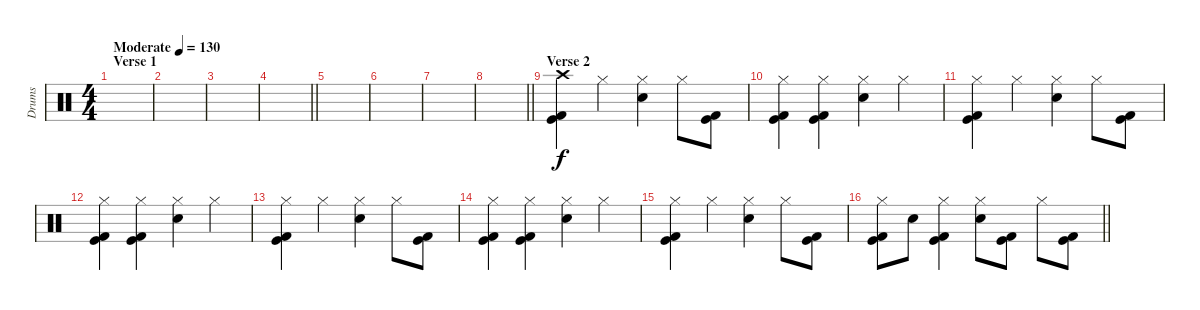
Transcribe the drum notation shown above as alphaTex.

\track ("Drums" "Drums") {instrument percussion}
\staff {score}
\articulation defaults
\ts (4 4)
\section ("" "Verse 1")
\tempo (130 "Moderate")
\clef neutral
\ks c
|
|
|
\barLineRight lightlight
|
|
|
|
\barLineRight lightlight
|
\section ("" "Verse 2")
("Crash high (hit)" "Kick (hit)" "Kick (hit) 2").4 "Hi-Hat (closed)".4 ("Hi-Hat (closed)" "Electric Snare (hit)").4 "Hi-Hat (closed)".8 ("Kick (hit)" "Kick (hit) 2").8 |
("Hi-Hat (closed)" "Kick (hit)" "Kick (hit) 2").4 ("Hi-Hat (closed)" "Kick (hit)" "Kick (hit) 2").4 ("Hi-Hat (closed)" "Electric Snare (hit)").4 "Hi-Hat (closed)".4 |
("Hi-Hat (closed)" "Kick (hit)" "Kick (hit) 2").4 "Hi-Hat (closed)".4 ("Hi-Hat (closed)" "Electric Snare (hit)").4 "Hi-Hat (closed)".8 ("Kick (hit)" "Kick (hit) 2").8 |
("Hi-Hat (closed)" "Kick (hit)" "Kick (hit) 2").4 ("Hi-Hat (closed)" "Kick (hit)" "Kick (hit) 2").4 ("Hi-Hat (closed)" "Electric Snare (hit)").4 "Hi-Hat (closed)".4 |
("Hi-Hat (closed)" "Kick (hit)" "Kick (hit) 2").4 "Hi-Hat (closed)".4 ("Hi-Hat (closed)" "Electric Snare (hit)").4 "Hi-Hat (closed)".8 ("Kick (hit)" "Kick (hit) 2").8 |
("Hi-Hat (closed)" "Kick (hit)" "Kick (hit) 2").4 ("Hi-Hat (closed)" "Kick (hit)" "Kick (hit) 2").4 ("Hi-Hat (closed)" "Electric Snare (hit)").4 "Hi-Hat (closed)".4 |
("Hi-Hat (closed)" "Kick (hit)" "Kick (hit) 2").4 "Hi-Hat (closed)".4 ("Hi-Hat (closed)" "Electric Snare (hit)").4 "Hi-Hat (closed)".8 ("Kick (hit)" "Kick (hit) 2").8 |
\barLineRight lightlight
("Hi-Hat (closed)" "Kick (hit)" "Kick (hit) 2").8 "Electric Snare (hit)".8 ("Hi-Hat (closed)" "Kick (hit)" "Kick (hit) 2").4 ("Hi-Hat (closed)" "Electric Snare (hit)").8 ("Kick (hit)" "Kick (hit) 2").8 "Hi-Hat (closed)".8 ("Kick (hit)" "Kick (hit) 2").8
